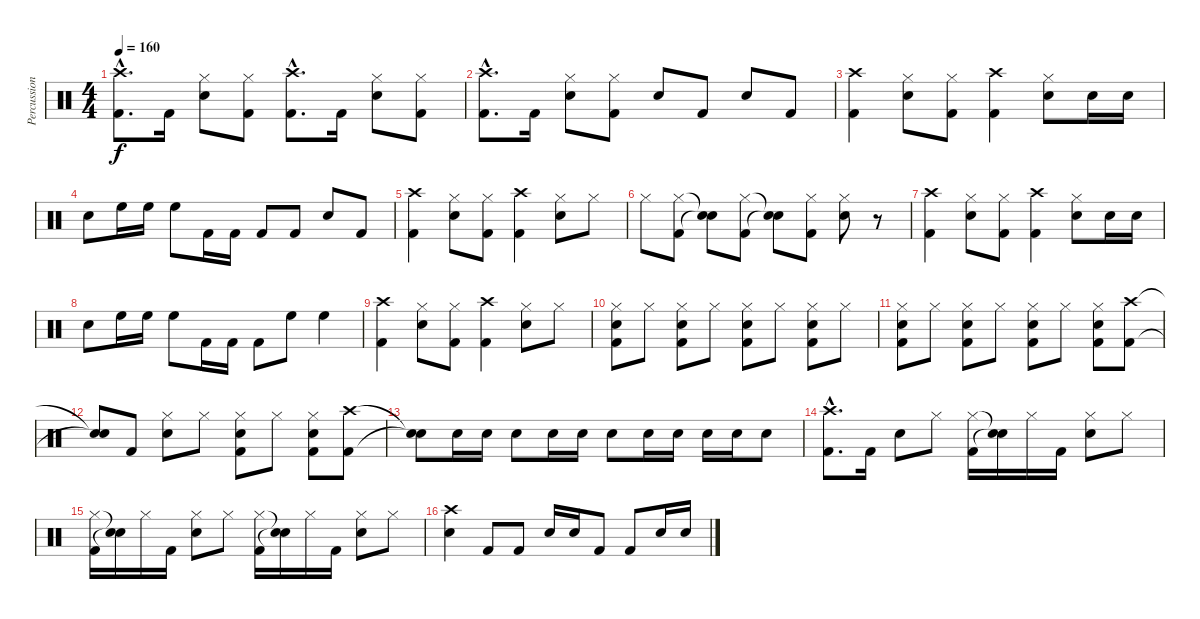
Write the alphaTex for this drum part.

\track ("Percussion" "Percussion") {instrument percussion}
\staff {score}
\articulation defaults
\ts (4 4)
\tempo 160
\clef neutral
\ks c
("Crash high (hit)"{hac} "Kick (hit) 2"{hac}).8{d dy f} "Kick (hit) 2".16 ("Hi-Hat (closed)" "Snare (hit) 2").8 ("Hi-Hat (closed)" "Kick (hit) 2").8 ("Crash high (hit)"{hac} "Kick (hit) 2"{hac}).8{d} "Kick (hit) 2".16 ("Hi-Hat (closed)" "Snare (hit) 2").8 ("Hi-Hat (closed)" "Kick (hit) 2").8 |
("Crash high (hit)"{hac} "Kick (hit) 2"{hac}).8{d} "Kick (hit) 2".16 ("Hi-Hat (closed)" "Snare (hit) 2").8 ("Hi-Hat (closed)" "Kick (hit) 2").8 "Snare (hit) 2".8 "Kick (hit) 2".8 "Snare (hit) 2".8 "Kick (hit) 2".8 |
("Crash high (hit)" "Kick (hit) 2").4 ("Hi-Hat (closed)" "Snare (hit) 2").8 ("Hi-Hat (closed)" "Kick (hit) 2").8 ("Crash high (hit)" "Kick (hit) 2").4 ("Hi-Hat (closed)" "Snare (hit) 2").8 "Snare (hit) 2".16 "Snare (hit) 2".16 |
"Snare (hit) 2".8 "High Floor Tom (hit)".16 "High Floor Tom (hit)".16 "High Floor Tom (hit)".8 "Kick (hit) 2".16 "Kick (hit) 2".16 "Kick (hit) 2".8 "Kick (hit) 2".8 "Snare (hit) 2".8 "Kick (hit) 2".8 |
("Crash high (hit)" "Kick (hit) 2").4 ("Hi-Hat (closed)" "Snare (hit) 2").8 ("Hi-Hat (closed)" "Kick (hit) 2").8 ("Crash high (hit)" "Kick (hit) 2").4 ("Hi-Hat (closed)" "Snare (hit) 2").8 "Hi-Hat (closed)".8 |
"Hi-Hat (closed)".8 ("Hi-Hat (closed)" "Kick (hit) 2").8 ("Snare (hit)"{t} "Snare (hit)"{t}).8 ("Hi-Hat (closed)" "Kick (hit) 2").8 ("Snare (hit)"{t} "Snare (hit)"{t}).8 ("Hi-Hat (closed)" "Kick (hit) 2").8 ("Hi-Hat (closed)" "Snare (hit) 2").8 r.8 |
("Crash high (hit)" "Kick (hit) 2").4 ("Hi-Hat (closed)" "Snare (hit) 2").8 ("Hi-Hat (closed)" "Kick (hit) 2").8 ("Crash high (hit)" "Kick (hit) 2").4 ("Hi-Hat (closed)" "Snare (hit) 2").8 "Snare (hit) 2".16 "Snare (hit) 2".16 |
"Snare (hit) 2".8 "High Floor Tom (hit)".16 "High Floor Tom (hit)".16 "High Floor Tom (hit)".8 "Kick (hit) 2".16 "Kick (hit) 2".16 "Kick (hit) 2".8 "High Floor Tom (hit)".8 "High Floor Tom (hit)".4 |
("Crash high (hit)" "Kick (hit) 2").4 ("Hi-Hat (closed)" "Snare (hit) 2").8 ("Hi-Hat (closed)" "Kick (hit) 2").8 ("Crash high (hit)" "Kick (hit) 2").4 ("Hi-Hat (closed)" "Snare (hit) 2").8 "Hi-Hat (closed)".8 |
("Hi-Hat (closed)" "Snare (hit) 2" "Kick (hit) 2").8 "Hi-Hat (closed)".8 ("Hi-Hat (closed)" "Snare (hit) 2" "Kick (hit) 2").8 "Hi-Hat (closed)".8 ("Hi-Hat (closed)" "Snare (hit) 2" "Kick (hit) 2").8 "Hi-Hat (closed)".8 ("Hi-Hat (closed)" "Snare (hit) 2" "Kick (hit) 2").8 "Hi-Hat (closed)".8 |
("Hi-Hat (closed)" "Snare (hit) 2" "Kick (hit) 2").8 "Hi-Hat (closed)".8 ("Hi-Hat (closed)" "Snare (hit) 2" "Kick (hit) 2").8 "Hi-Hat (closed)".8 ("Hi-Hat (closed)" "Snare (hit) 2" "Kick (hit) 2").8 "Hi-Hat (closed)".8 ("Hi-Hat (closed)" "Snare (hit) 2" "Kick (hit) 2").8 ("Crash high (hit)" "Kick (hit) 2").8 |
("Snare (hit)"{t} "Snare (hit)"{t}).8 "Kick (hit) 2".8 ("Hi-Hat (closed)" "Snare (hit) 2").8 "Hi-Hat (closed)".8 ("Hi-Hat (closed)" "Snare (hit) 2" "Kick (hit) 2").8 "Hi-Hat (closed)".8 ("Hi-Hat (closed)" "Snare (hit) 2" "Kick (hit) 2").8 ("Crash high (hit)" "Kick (hit) 2").8 |
("Snare (hit)"{t} "Snare (hit)"{t}).8 "Snare (hit) 2".16 "Snare (hit) 2".16 "Snare (hit) 2".8 "Snare (hit) 2".16 "Snare (hit) 2".16 "Snare (hit) 2".8 "Snare (hit) 2".16 "Snare (hit) 2".16 "Snare (hit) 2".16 "Snare (hit) 2".16 "Snare (hit) 2".8 |
("Crash high (hit)"{hac} "Kick (hit) 2"{hac}).8{d} "Kick (hit) 2".16 "Snare (hit) 2".8 "Hi-Hat (closed)".8 ("Hi-Hat (closed)" "Kick (hit) 2").16 ("Snare (hit)"{t} "Snare (hit)"{t}).16 "Hi-Hat (closed)".16 "Kick (hit) 2".16 ("Hi-Hat (closed)" "Snare (hit) 2").8 "Hi-Hat (closed)".8 |
("Hi-Hat (closed)" "Kick (hit) 2").16 ("Snare (hit)"{t} "Snare (hit)"{t}).16 "Hi-Hat (closed)".16 "Kick (hit) 2".16 ("Hi-Hat (closed)" "Snare (hit) 2").8 "Hi-Hat (closed)".8 ("Hi-Hat (closed)" "Kick (hit) 2").16 ("Snare (hit)"{t} "Snare (hit)"{t}).16 "Hi-Hat (closed)".16 "Kick (hit) 2".16 ("Hi-Hat (closed)" "Snare (hit) 2").8 "Hi-Hat (closed)".8 |
("Crash high (hit)" "Snare (hit) 2").4 "Kick (hit) 2".8 "Kick (hit) 2".8 "Snare (hit) 2".16 "Snare (hit) 2".16 "Kick (hit) 2".8 "Kick (hit) 2".8 "Snare (hit) 2".16 "Snare (hit) 2".16
